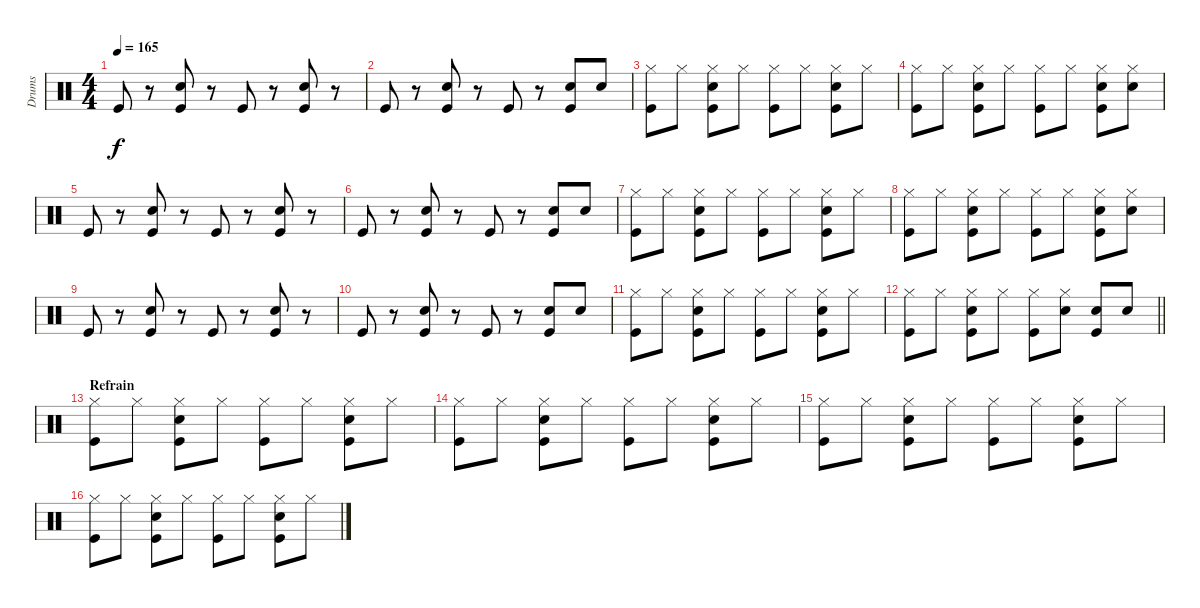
\track ("Drums" "Drums") {instrument percussion}
\staff {score}
\articulation defaults
\ts (4 4)
\tempo 165
\clef neutral
\ks c "Kick (hit)".8{dy f}
r.8 ("Kick (hit)" "Snare (hit) 2").8 r.8 "Kick (hit)".8 r.8 ("Kick (hit)" "Snare (hit) 2").8 r.8 |
"Kick (hit)".8 r.8 ("Kick (hit)" "Snare (hit) 2").8 r.8 "Kick (hit)".8 r.8 ("Kick (hit)" "Snare (hit) 2").8 "Snare (hit) 2".8 |
("Hi-Hat (closed)" "Kick (hit)").8 "Hi-Hat (closed)".8 ("Hi-Hat (closed)" "Kick (hit)" "Snare (hit) 2").8 "Hi-Hat (closed)".8 ("Hi-Hat (closed)" "Kick (hit)").8 "Hi-Hat (closed)".8 ("Hi-Hat (closed)" "Kick (hit)" "Snare (hit) 2").8 "Hi-Hat (closed)".8 |
("Hi-Hat (closed)" "Kick (hit)").8 "Hi-Hat (closed)".8 ("Hi-Hat (closed)" "Kick (hit)" "Snare (hit) 2").8 "Hi-Hat (closed)".8 ("Hi-Hat (closed)" "Kick (hit)").8 "Hi-Hat (closed)".8 ("Hi-Hat (closed)" "Kick (hit)" "Snare (hit) 2").8 ("Hi-Hat (closed)" "Snare (hit) 2").8 |
"Kick (hit)".8 r.8 ("Kick (hit)" "Snare (hit) 2").8 r.8 "Kick (hit)".8 r.8 ("Kick (hit)" "Snare (hit) 2").8 r.8 |
"Kick (hit)".8 r.8 ("Kick (hit)" "Snare (hit) 2").8 r.8 "Kick (hit)".8 r.8 ("Kick (hit)" "Snare (hit) 2").8 "Snare (hit) 2".8 |
("Hi-Hat (closed)" "Kick (hit)").8 "Hi-Hat (closed)".8 ("Hi-Hat (closed)" "Kick (hit)" "Snare (hit) 2").8 "Hi-Hat (closed)".8 ("Hi-Hat (closed)" "Kick (hit)").8 "Hi-Hat (closed)".8 ("Hi-Hat (closed)" "Kick (hit)" "Snare (hit) 2").8 "Hi-Hat (closed)".8 |
("Hi-Hat (closed)" "Kick (hit)").8 "Hi-Hat (closed)".8 ("Hi-Hat (closed)" "Kick (hit)" "Snare (hit) 2").8 "Hi-Hat (closed)".8 ("Hi-Hat (closed)" "Kick (hit)").8 "Hi-Hat (closed)".8 ("Hi-Hat (closed)" "Kick (hit)" "Snare (hit) 2").8 ("Hi-Hat (closed)" "Snare (hit) 2").8 |
"Kick (hit)".8 r.8 ("Kick (hit)" "Snare (hit) 2").8 r.8 "Kick (hit)".8 r.8 ("Kick (hit)" "Snare (hit) 2").8 r.8 |
"Kick (hit)".8 r.8 ("Kick (hit)" "Snare (hit) 2").8 r.8 "Kick (hit)".8 r.8 ("Kick (hit)" "Snare (hit) 2").8 "Snare (hit) 2".8 |
("Hi-Hat (closed)" "Kick (hit)").8 "Hi-Hat (closed)".8 ("Hi-Hat (closed)" "Kick (hit)" "Snare (hit) 2").8 "Hi-Hat (closed)".8 ("Hi-Hat (closed)" "Kick (hit)").8 "Hi-Hat (closed)".8 ("Hi-Hat (closed)" "Kick (hit)" "Snare (hit) 2").8 "Hi-Hat (closed)".8 |
\barLineRight lightlight
("Hi-Hat (closed)" "Kick (hit)").8 "Hi-Hat (closed)".8 ("Hi-Hat (closed)" "Kick (hit)" "Snare (hit) 2").8 "Hi-Hat (closed)".8 ("Hi-Hat (closed)" "Kick (hit)").8 ("Hi-Hat (closed)" "Snare (hit) 2").8 ("Kick (hit)" "Snare (hit) 2").8 "Snare (hit) 2".8 |
\section ("" "Refrain")
("Hi-Hat (closed)" "Kick (hit)").8 "Hi-Hat (closed)".8 ("Hi-Hat (closed)" "Kick (hit)" "Snare (hit) 2").8 "Hi-Hat (closed)".8 ("Hi-Hat (closed)" "Kick (hit)").8 "Hi-Hat (closed)".8 ("Hi-Hat (closed)" "Kick (hit)" "Snare (hit) 2").8 "Hi-Hat (closed)".8 |
("Hi-Hat (closed)" "Kick (hit)").8 "Hi-Hat (closed)".8 ("Hi-Hat (closed)" "Kick (hit)" "Snare (hit) 2").8 "Hi-Hat (closed)".8 ("Hi-Hat (closed)" "Kick (hit)").8 "Hi-Hat (closed)".8 ("Hi-Hat (closed)" "Kick (hit)" "Snare (hit) 2").8 "Hi-Hat (closed)".8 |
("Hi-Hat (closed)" "Kick (hit)").8 "Hi-Hat (closed)".8 ("Hi-Hat (closed)" "Kick (hit)" "Snare (hit) 2").8 "Hi-Hat (closed)".8 ("Hi-Hat (closed)" "Kick (hit)").8 "Hi-Hat (closed)".8 ("Hi-Hat (closed)" "Kick (hit)" "Snare (hit) 2").8 "Hi-Hat (closed)".8 |
("Hi-Hat (closed)" "Kick (hit)").8 "Hi-Hat (closed)".8 ("Hi-Hat (closed)" "Kick (hit)" "Snare (hit) 2").8 "Hi-Hat (closed)".8 ("Hi-Hat (closed)" "Kick (hit)").8 "Hi-Hat (closed)".8 ("Hi-Hat (closed)" "Kick (hit)" "Snare (hit) 2").8 "Hi-Hat (closed)".8
